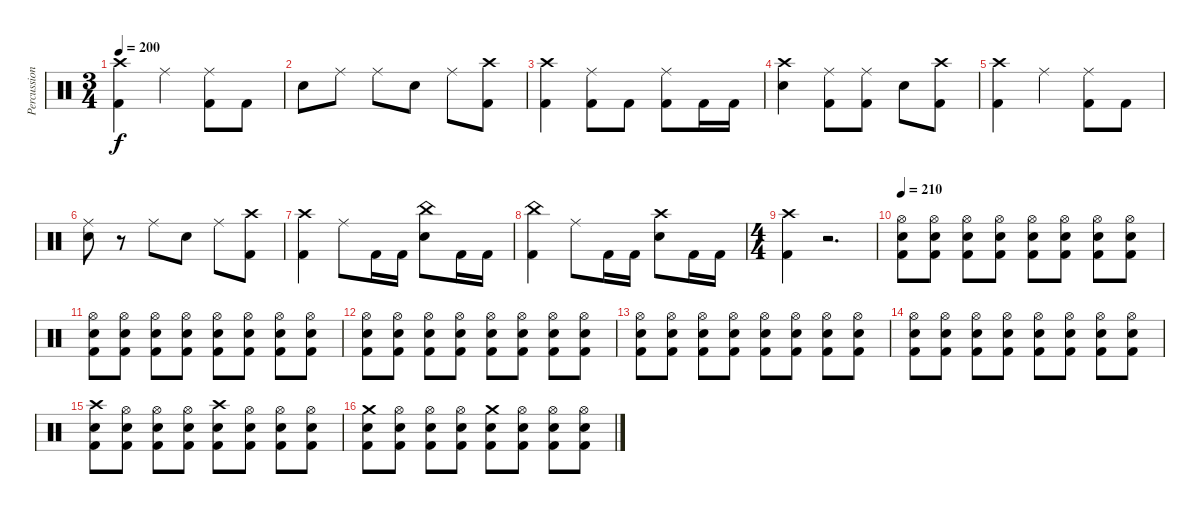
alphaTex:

\track ("Percussion" "Percussion") {instrument percussion}
\staff {score}
\articulation defaults
\ts (3 4)
\tempo 200
\clef neutral
\ks c
("Crash high (hit)" "Kick (hit) 2").4{dy f} "Ride (middle)".4 ("Ride (middle)" "Kick (hit) 2").8 "Kick (hit) 2".8 |
"Electric Snare (hit)".8 "Ride (middle)".8 "Ride (middle)".8 "Electric Snare (hit)".8 "Ride (middle)".8 ("Crash high (hit)" "Kick (hit) 2").8 |
("Crash high (hit)" "Kick (hit) 2").4 ("Ride (middle)" "Kick (hit) 2").8 "Kick (hit) 2".8 ("Ride (middle)" "Kick (hit) 2").8 "Kick (hit) 2".16 "Kick (hit) 2".16 |
("Crash high (hit)" "Electric Snare (hit)").4 ("Ride (middle)" "Kick (hit) 2").8 ("Ride (middle)" "Kick (hit) 2").8 "Electric Snare (hit)".8 ("Crash high (hit)" "Kick (hit) 2").8 |
("Crash high (hit)" "Kick (hit) 2").4 "Ride (middle)".4 ("Ride (middle)" "Kick (hit) 2").8 "Kick (hit) 2".8 |
("Ride (middle)" "Electric Snare (hit)").8 r.8 "Ride (middle)".8 "Electric Snare (hit)".8 "Ride (middle)".8 ("Crash high (hit)" "Kick (hit) 2").8 |
("Crash high (hit)" "Kick (hit) 2").4 "Ride (middle)".8 "Kick (hit) 2".16 "Kick (hit) 2".16 ("Electric Snare (hit)" "China (hit)").8 "Kick (hit) 2".16 "Kick (hit) 2".16 |
("China (hit)" "Kick (hit) 2").4 "Ride (middle)".8 "Kick (hit) 2".16 "Kick (hit) 2".16 ("Electric Snare (hit)" "Crash high (hit)").8 "Kick (hit) 2".16 "Kick (hit) 2".16 |
\ts (4 4)
("Crash high (hit)" "Kick (hit) 2").4 r.2{d} |
\tempo 210
("Hi-Hat (open)" "Electric Snare (hit)" "Kick (hit) 2").8 ("Hi-Hat (open)" "Electric Snare (hit)" "Kick (hit) 2").8 ("Hi-Hat (open)" "Electric Snare (hit)" "Kick (hit) 2").8 ("Hi-Hat (open)" "Electric Snare (hit)" "Kick (hit) 2").8 ("Hi-Hat (open)" "Electric Snare (hit)" "Kick (hit) 2").8 ("Hi-Hat (open)" "Electric Snare (hit)" "Kick (hit) 2").8 ("Hi-Hat (open)" "Electric Snare (hit)" "Kick (hit) 2").8 ("Hi-Hat (open)" "Electric Snare (hit)" "Kick (hit) 2").8 |
("Hi-Hat (open)" "Electric Snare (hit)" "Kick (hit) 2").8 ("Hi-Hat (open)" "Electric Snare (hit)" "Kick (hit) 2").8 ("Hi-Hat (open)" "Electric Snare (hit)" "Kick (hit) 2").8 ("Hi-Hat (open)" "Electric Snare (hit)" "Kick (hit) 2").8 ("Hi-Hat (open)" "Electric Snare (hit)" "Kick (hit) 2").8 ("Hi-Hat (open)" "Electric Snare (hit)" "Kick (hit) 2").8 ("Hi-Hat (open)" "Electric Snare (hit)" "Kick (hit) 2").8 ("Hi-Hat (open)" "Electric Snare (hit)" "Kick (hit) 2").8 |
("Hi-Hat (open)" "Electric Snare (hit)" "Kick (hit) 2").8 ("Hi-Hat (open)" "Electric Snare (hit)" "Kick (hit) 2").8 ("Hi-Hat (open)" "Electric Snare (hit)" "Kick (hit) 2").8 ("Hi-Hat (open)" "Electric Snare (hit)" "Kick (hit) 2").8 ("Hi-Hat (open)" "Electric Snare (hit)" "Kick (hit) 2").8 ("Hi-Hat (open)" "Electric Snare (hit)" "Kick (hit) 2").8 ("Hi-Hat (open)" "Electric Snare (hit)" "Kick (hit) 2").8 ("Hi-Hat (open)" "Electric Snare (hit)" "Kick (hit) 2").8 |
("Hi-Hat (open)" "Electric Snare (hit)" "Kick (hit) 2").8 ("Hi-Hat (open)" "Electric Snare (hit)" "Kick (hit) 2").8 ("Hi-Hat (open)" "Electric Snare (hit)" "Kick (hit) 2").8 ("Hi-Hat (open)" "Electric Snare (hit)" "Kick (hit) 2").8 ("Hi-Hat (open)" "Electric Snare (hit)" "Kick (hit) 2").8 ("Hi-Hat (open)" "Electric Snare (hit)" "Kick (hit) 2").8 ("Hi-Hat (open)" "Electric Snare (hit)" "Kick (hit) 2").8 ("Hi-Hat (open)" "Electric Snare (hit)" "Kick (hit) 2").8 |
("Hi-Hat (open)" "Electric Snare (hit)" "Kick (hit) 2").8 ("Hi-Hat (open)" "Electric Snare (hit)" "Kick (hit) 2").8 ("Hi-Hat (open)" "Electric Snare (hit)" "Kick (hit) 2").8 ("Hi-Hat (open)" "Electric Snare (hit)" "Kick (hit) 2").8 ("Hi-Hat (open)" "Electric Snare (hit)" "Kick (hit) 2").8 ("Hi-Hat (open)" "Electric Snare (hit)" "Kick (hit) 2").8 ("Hi-Hat (open)" "Electric Snare (hit)" "Kick (hit) 2").8 ("Hi-Hat (open)" "Electric Snare (hit)" "Kick (hit) 2").8 |
("Crash high (hit)" "Electric Snare (hit)" "Kick (hit) 2").8 ("Hi-Hat (open)" "Electric Snare (hit)" "Kick (hit) 2").8 ("Hi-Hat (open)" "Electric Snare (hit)" "Kick (hit) 2").8 ("Hi-Hat (open)" "Electric Snare (hit)" "Kick (hit) 2").8 ("Crash high (hit)" "Electric Snare (hit)" "Kick (hit) 2").8 ("Hi-Hat (open)" "Electric Snare (hit)" "Kick (hit) 2").8 ("Hi-Hat (open)" "Electric Snare (hit)" "Kick (hit) 2").8 ("Hi-Hat (open)" "Electric Snare (hit)" "Kick (hit) 2").8 |
("Crash medium (hit)" "Electric Snare (hit)" "Kick (hit) 2").8 ("Hi-Hat (open)" "Electric Snare (hit)" "Kick (hit) 2").8 ("Hi-Hat (open)" "Electric Snare (hit)" "Kick (hit) 2").8 ("Hi-Hat (open)" "Electric Snare (hit)" "Kick (hit) 2").8 ("Crash medium (hit)" "Electric Snare (hit)" "Kick (hit) 2").8 ("Hi-Hat (open)" "Electric Snare (hit)" "Kick (hit) 2").8 ("Hi-Hat (open)" "Electric Snare (hit)" "Kick (hit) 2").8 ("Hi-Hat (open)" "Electric Snare (hit)" "Kick (hit) 2").8
